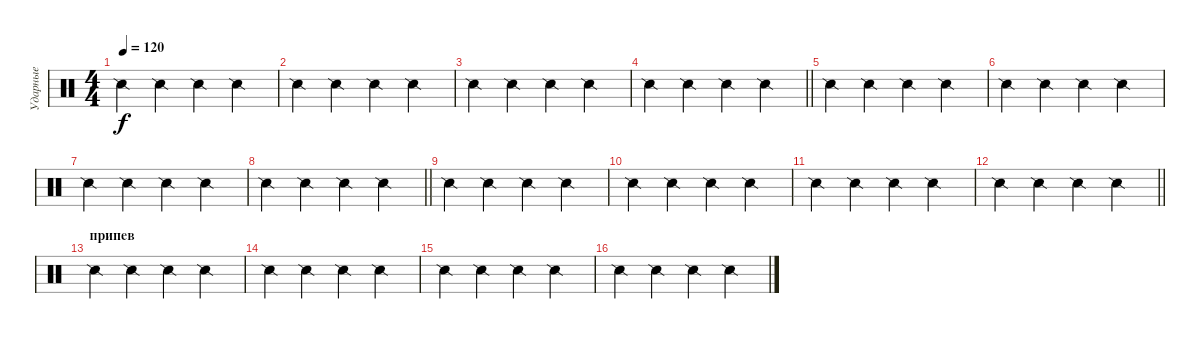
\track ("Ударные" "Ударные") {mute instrument percussion}
\staff {score}
\articulation defaults
\ts (4 4)
\tempo 120
\clef neutral
\ks c "Snare (side stick) 2".4{dy f} "Snare (side stick) 2".4 "Snare (side stick) 2".4 "Snare (side stick) 2".4
|
"Snare (side stick) 2".4 "Snare (side stick) 2".4 "Snare (side stick) 2".4 "Snare (side stick) 2".4 |
"Snare (side stick) 2".4 "Snare (side stick) 2".4 "Snare (side stick) 2".4 "Snare (side stick) 2".4 |
\barLineRight lightlight "Snare (side stick) 2".4 "Snare (side stick) 2".4 "Snare (side stick) 2".4 "Snare (side stick) 2".4
|
"Snare (side stick) 2".4 "Snare (side stick) 2".4 "Snare (side stick) 2".4 "Snare (side stick) 2".4 |
"Snare (side stick) 2".4 "Snare (side stick) 2".4 "Snare (side stick) 2".4 "Snare (side stick) 2".4 |
"Snare (side stick) 2".4 "Snare (side stick) 2".4 "Snare (side stick) 2".4 "Snare (side stick) 2".4 |
\barLineRight lightlight "Snare (side stick) 2".4 "Snare (side stick) 2".4 "Snare (side stick) 2".4 "Snare (side stick) 2".4
|
"Snare (side stick) 2".4 "Snare (side stick) 2".4 "Snare (side stick) 2".4 "Snare (side stick) 2".4 |
"Snare (side stick) 2".4 "Snare (side stick) 2".4 "Snare (side stick) 2".4 "Snare (side stick) 2".4 |
"Snare (side stick) 2".4 "Snare (side stick) 2".4 "Snare (side stick) 2".4 "Snare (side stick) 2".4 |
\barLineRight lightlight "Snare (side stick) 2".4 "Snare (side stick) 2".4 "Snare (side stick) 2".4 "Snare (side stick) 2".4
|
\section ("" "припев")
"Snare (side stick) 2".4 "Snare (side stick) 2".4 "Snare (side stick) 2".4 "Snare (side stick) 2".4 |
"Snare (side stick) 2".4 "Snare (side stick) 2".4 "Snare (side stick) 2".4 "Snare (side stick) 2".4 |
"Snare (side stick) 2".4 "Snare (side stick) 2".4 "Snare (side stick) 2".4 "Snare (side stick) 2".4 |
"Snare (side stick) 2".4 "Snare (side stick) 2".4 "Snare (side stick) 2".4 "Snare (side stick) 2".4
